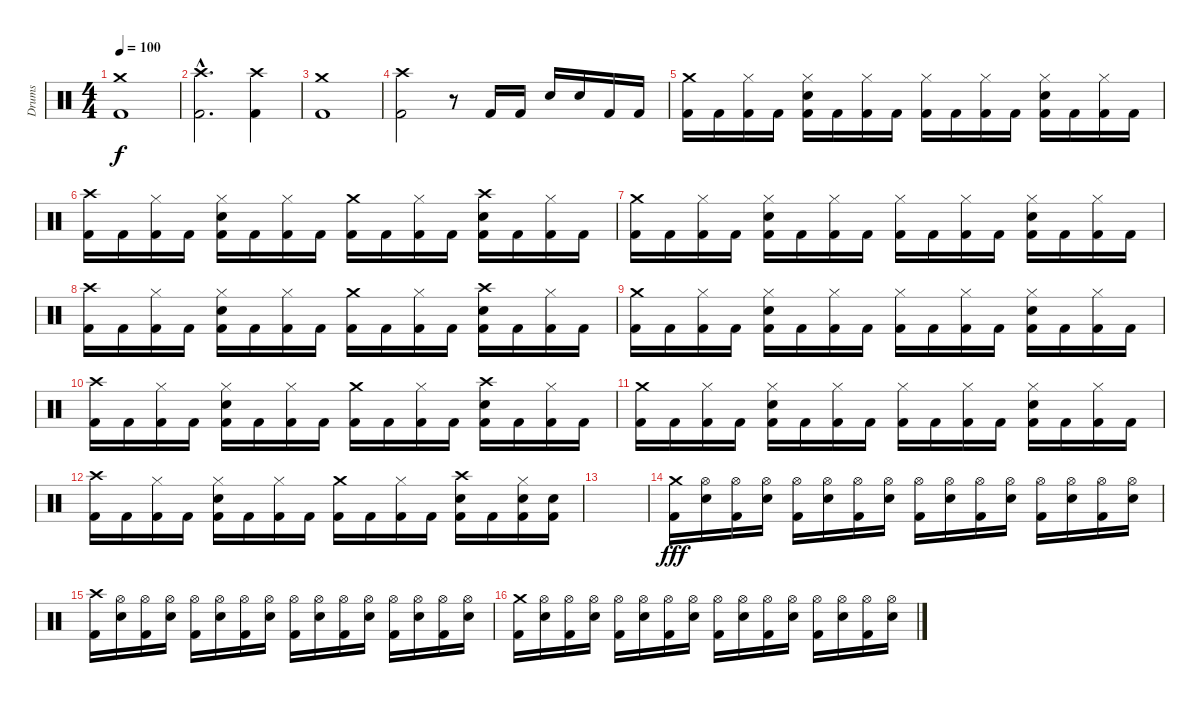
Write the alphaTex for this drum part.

\track ("Drums" "Drums") {instrument percussion}
\staff {score}
\articulation defaults
\ts (4 4)
\tempo 100
\clef neutral
\ks c
("Crash medium (hit)" "Kick (hit) 2").1{dy f} |
("Crash high (hit)"{hac} "Kick (hit) 2"{hac}).2{d} ("Crash high (hit)" "Kick (hit) 2").4 |
("Crash medium (hit)" "Kick (hit) 2").1 |
("Crash high (hit)" "Kick (hit) 2").2 r.8 "Kick (hit) 2".16 "Kick (hit) 2".16 "Snare (hit) 2".16 "Snare (hit) 2".16 "Kick (hit) 2".16 "Kick (hit) 2".16 |
("Crash medium (hit)" "Kick (hit) 2").16 "Kick (hit) 2".16 ("Hi-Hat (closed)" "Kick (hit) 2").16 "Kick (hit) 2".16 ("Hi-Hat (closed)" "Snare (hit) 2" "Kick (hit) 2").16 "Kick (hit) 2".16 ("Hi-Hat (closed)" "Kick (hit) 2").16 "Kick (hit) 2".16 ("Hi-Hat (closed)" "Kick (hit) 2").16 "Kick (hit) 2".16 ("Hi-Hat (closed)" "Kick (hit) 2").16 "Kick (hit) 2".16 ("Hi-Hat (closed)" "Snare (hit) 2" "Kick (hit) 2").16 "Kick (hit) 2".16 ("Hi-Hat (closed)" "Kick (hit) 2").16 "Kick (hit) 2".16 |
("Crash high (hit)" "Kick (hit) 2").16 "Kick (hit) 2".16 ("Hi-Hat (closed)" "Kick (hit) 2").16 "Kick (hit) 2".16 ("Hi-Hat (closed)" "Snare (hit) 2" "Kick (hit) 2").16 "Kick (hit) 2".16 ("Hi-Hat (closed)" "Kick (hit) 2").16 "Kick (hit) 2".16 ("Crash medium (hit)" "Kick (hit) 2").16 "Kick (hit) 2".16 ("Hi-Hat (closed)" "Kick (hit) 2").16 "Kick (hit) 2".16 ("Crash high (hit)" "Snare (hit) 2" "Kick (hit) 2").16 "Kick (hit) 2".16 ("Hi-Hat (closed)" "Kick (hit) 2").16 "Kick (hit) 2".16 |
("Crash medium (hit)" "Kick (hit) 2").16 "Kick (hit) 2".16 ("Hi-Hat (closed)" "Kick (hit) 2").16 "Kick (hit) 2".16 ("Hi-Hat (closed)" "Snare (hit) 2" "Kick (hit) 2").16 "Kick (hit) 2".16 ("Hi-Hat (closed)" "Kick (hit) 2").16 "Kick (hit) 2".16 ("Hi-Hat (closed)" "Kick (hit) 2").16 "Kick (hit) 2".16 ("Hi-Hat (closed)" "Kick (hit) 2").16 "Kick (hit) 2".16 ("Hi-Hat (closed)" "Snare (hit) 2" "Kick (hit) 2").16 "Kick (hit) 2".16 ("Hi-Hat (closed)" "Kick (hit) 2").16 "Kick (hit) 2".16 |
("Crash high (hit)" "Kick (hit) 2").16 "Kick (hit) 2".16 ("Hi-Hat (closed)" "Kick (hit) 2").16 "Kick (hit) 2".16 ("Hi-Hat (closed)" "Snare (hit) 2" "Kick (hit) 2").16 "Kick (hit) 2".16 ("Hi-Hat (closed)" "Kick (hit) 2").16 "Kick (hit) 2".16 ("Crash medium (hit)" "Kick (hit) 2").16 "Kick (hit) 2".16 ("Hi-Hat (closed)" "Kick (hit) 2").16 "Kick (hit) 2".16 ("Crash high (hit)" "Snare (hit) 2" "Kick (hit) 2").16 "Kick (hit) 2".16 ("Hi-Hat (closed)" "Kick (hit) 2").16 "Kick (hit) 2".16 |
("Crash medium (hit)" "Kick (hit) 2").16 "Kick (hit) 2".16 ("Hi-Hat (closed)" "Kick (hit) 2").16 "Kick (hit) 2".16 ("Hi-Hat (closed)" "Snare (hit) 2" "Kick (hit) 2").16 "Kick (hit) 2".16 ("Hi-Hat (closed)" "Kick (hit) 2").16 "Kick (hit) 2".16 ("Hi-Hat (closed)" "Kick (hit) 2").16 "Kick (hit) 2".16 ("Hi-Hat (closed)" "Kick (hit) 2").16 "Kick (hit) 2".16 ("Hi-Hat (closed)" "Snare (hit) 2" "Kick (hit) 2").16 "Kick (hit) 2".16 ("Hi-Hat (closed)" "Kick (hit) 2").16 "Kick (hit) 2".16 |
("Crash high (hit)" "Kick (hit) 2").16 "Kick (hit) 2".16 ("Hi-Hat (closed)" "Kick (hit) 2").16 "Kick (hit) 2".16 ("Hi-Hat (closed)" "Snare (hit) 2" "Kick (hit) 2").16 "Kick (hit) 2".16 ("Hi-Hat (closed)" "Kick (hit) 2").16 "Kick (hit) 2".16 ("Crash medium (hit)" "Kick (hit) 2").16 "Kick (hit) 2".16 ("Hi-Hat (closed)" "Kick (hit) 2").16 "Kick (hit) 2".16 ("Crash high (hit)" "Snare (hit) 2" "Kick (hit) 2").16 "Kick (hit) 2".16 ("Hi-Hat (closed)" "Kick (hit) 2").16 "Kick (hit) 2".16 |
("Crash medium (hit)" "Kick (hit) 2").16 "Kick (hit) 2".16 ("Hi-Hat (closed)" "Kick (hit) 2").16 "Kick (hit) 2".16 ("Hi-Hat (closed)" "Snare (hit) 2" "Kick (hit) 2").16 "Kick (hit) 2".16 ("Hi-Hat (closed)" "Kick (hit) 2").16 "Kick (hit) 2".16 ("Hi-Hat (closed)" "Kick (hit) 2").16 "Kick (hit) 2".16 ("Hi-Hat (closed)" "Kick (hit) 2").16 "Kick (hit) 2".16 ("Hi-Hat (closed)" "Snare (hit) 2" "Kick (hit) 2").16 "Kick (hit) 2".16 ("Hi-Hat (closed)" "Kick (hit) 2").16 "Kick (hit) 2".16 |
("Crash high (hit)" "Kick (hit) 2").16 "Kick (hit) 2".16 ("Hi-Hat (closed)" "Kick (hit) 2").16 "Kick (hit) 2".16 ("Hi-Hat (closed)" "Snare (hit) 2" "Kick (hit) 2").16 "Kick (hit) 2".16 ("Hi-Hat (closed)" "Kick (hit) 2").16 "Kick (hit) 2".16 ("Crash medium (hit)" "Kick (hit) 2").16 "Kick (hit) 2".16 ("Hi-Hat (closed)" "Kick (hit) 2").16 "Kick (hit) 2".16 ("Crash high (hit)" "Snare (hit) 2" "Kick (hit) 2").16 "Kick (hit) 2".16 ("Hi-Hat (closed)" "Snare (hit) 2" "Kick (hit) 2").16 ("Snare (hit) 2" "Kick (hit) 2").16 |
|
("Crash medium (hit)" "Kick (hit) 2").16{dy fff} ("Hi-Hat (open)" "Snare (hit) 2").16 ("Hi-Hat (open)" "Kick (hit) 2").16 ("Hi-Hat (open)" "Snare (hit) 2").16 ("Hi-Hat (open)" "Kick (hit) 2").16 ("Hi-Hat (open)" "Snare (hit) 2").16 ("Hi-Hat (open)" "Kick (hit) 2").16 ("Hi-Hat (open)" "Snare (hit) 2").16 ("Hi-Hat (open)" "Kick (hit) 2").16 ("Hi-Hat (open)" "Snare (hit) 2").16 ("Hi-Hat (open)" "Kick (hit) 2").16 ("Hi-Hat (open)" "Snare (hit) 2").16 ("Hi-Hat (open)" "Kick (hit) 2").16 ("Hi-Hat (open)" "Snare (hit) 2").16 ("Hi-Hat (open)" "Kick (hit) 2").16 ("Hi-Hat (open)" "Snare (hit) 2").16 |
("Crash high (hit)" "Kick (hit) 2").16 ("Hi-Hat (open)" "Snare (hit) 2").16 ("Hi-Hat (open)" "Kick (hit) 2").16 ("Hi-Hat (open)" "Snare (hit) 2").16 ("Hi-Hat (open)" "Kick (hit) 2").16 ("Hi-Hat (open)" "Snare (hit) 2").16 ("Hi-Hat (open)" "Kick (hit) 2").16 ("Hi-Hat (open)" "Snare (hit) 2").16 ("Hi-Hat (open)" "Kick (hit) 2").16 ("Hi-Hat (open)" "Snare (hit) 2").16 ("Hi-Hat (open)" "Kick (hit) 2").16 ("Hi-Hat (open)" "Snare (hit) 2").16 ("Hi-Hat (open)" "Kick (hit) 2").16 ("Hi-Hat (open)" "Snare (hit) 2").16 ("Hi-Hat (open)" "Kick (hit) 2").16 ("Hi-Hat (open)" "Snare (hit) 2").16 |
("Crash medium (hit)" "Kick (hit) 2").16 ("Hi-Hat (open)" "Snare (hit) 2").16 ("Hi-Hat (open)" "Kick (hit) 2").16 ("Hi-Hat (open)" "Snare (hit) 2").16 ("Hi-Hat (open)" "Kick (hit) 2").16 ("Hi-Hat (open)" "Snare (hit) 2").16 ("Hi-Hat (open)" "Kick (hit) 2").16 ("Hi-Hat (open)" "Snare (hit) 2").16 ("Hi-Hat (open)" "Kick (hit) 2").16 ("Hi-Hat (open)" "Snare (hit) 2").16 ("Hi-Hat (open)" "Kick (hit) 2").16 ("Hi-Hat (open)" "Snare (hit) 2").16 ("Hi-Hat (open)" "Kick (hit) 2").16 ("Hi-Hat (open)" "Snare (hit) 2").16 ("Hi-Hat (open)" "Kick (hit) 2").16 ("Hi-Hat (open)" "Snare (hit) 2").16
